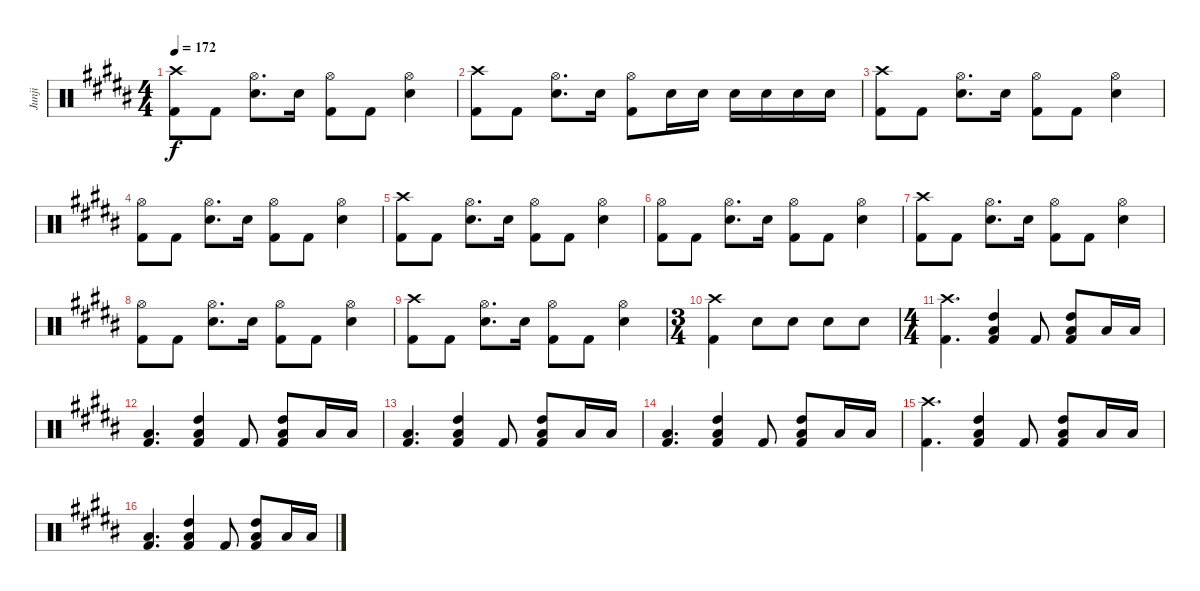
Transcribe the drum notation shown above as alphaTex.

\track ("Junji" "Junji") {instrument percussion}
\staff {score}
\articulation defaults
\ts (4 4)
\tempo 172
\clef neutral
\ks b
("Crash high (hit)" "Kick (hit) 2").8{dy f} "Kick (hit) 2".8 ("Hi-Hat (open)" "Snare (hit) 2").8{d} "Snare (hit) 2".16 ("Hi-Hat (open)" "Kick (hit) 2").8 "Kick (hit) 2".8 ("Hi-Hat (open)" "Snare (hit) 2").4 |
("Crash high (hit)" "Kick (hit) 2").8 "Kick (hit) 2".8 ("Hi-Hat (open)" "Snare (hit) 2").8{d} "Snare (hit) 2".16 ("Hi-Hat (open)" "Kick (hit) 2").8 "Snare (hit) 2".16 "Snare (hit) 2".16 "Snare (hit) 2".16 "Snare (hit) 2".16 "Snare (hit) 2".16 "Snare (hit) 2".16 |
("Crash high (hit)" "Kick (hit) 2").8 "Kick (hit) 2".8 ("Hi-Hat (open)" "Snare (hit) 2").8{d} "Snare (hit) 2".16 ("Hi-Hat (open)" "Kick (hit) 2").8 "Kick (hit) 2".8 ("Hi-Hat (open)" "Snare (hit) 2").4 |
("Hi-Hat (open)" "Kick (hit) 2").8 "Kick (hit) 2".8 ("Hi-Hat (open)" "Snare (hit) 2").8{d} "Snare (hit) 2".16 ("Hi-Hat (open)" "Kick (hit) 2").8 "Kick (hit) 2".8 ("Hi-Hat (open)" "Snare (hit) 2").4 |
("Crash high (hit)" "Kick (hit) 2").8 "Kick (hit) 2".8 ("Hi-Hat (open)" "Snare (hit) 2").8{d} "Snare (hit) 2".16 ("Hi-Hat (open)" "Kick (hit) 2").8 "Kick (hit) 2".8 ("Hi-Hat (open)" "Snare (hit) 2").4 |
("Hi-Hat (open)" "Kick (hit) 2").8 "Kick (hit) 2".8 ("Hi-Hat (open)" "Snare (hit) 2").8{d} "Snare (hit) 2".16 ("Hi-Hat (open)" "Kick (hit) 2").8 "Kick (hit) 2".8 ("Hi-Hat (open)" "Snare (hit) 2").4 |
("Crash high (hit)" "Kick (hit) 2").8 "Kick (hit) 2".8 ("Hi-Hat (open)" "Snare (hit) 2").8{d} "Snare (hit) 2".16 ("Hi-Hat (open)" "Kick (hit) 2").8 "Kick (hit) 2".8 ("Hi-Hat (open)" "Snare (hit) 2").4 |
("Hi-Hat (open)" "Kick (hit) 2").8 "Kick (hit) 2".8 ("Hi-Hat (open)" "Snare (hit) 2").8{d} "Snare (hit) 2".16 ("Hi-Hat (open)" "Kick (hit) 2").8 "Kick (hit) 2".8 ("Hi-Hat (open)" "Snare (hit) 2").4 |
("Crash high (hit)" "Kick (hit) 2").8 "Kick (hit) 2".8 ("Hi-Hat (open)" "Snare (hit) 2").8{d} "Snare (hit) 2".16 ("Hi-Hat (open)" "Kick (hit) 2").8 "Kick (hit) 2".8 ("Hi-Hat (open)" "Snare (hit) 2").4 |
\ts (3 4)
("Crash high (hit)" "Kick (hit) 2").4 "Snare (hit) 2".8 "Snare (hit) 2".8 "Snare (hit) 2".8 "Snare (hit) 2".8 |
\ts (4 4)
("Crash high (hit)" "Kick (hit) 2").4{d} ("Low Floor Tom (hit)" "Kick (hit) 2" "High Tom (hit)").4 "Kick (hit) 2".8 ("Low Floor Tom (hit)" "Kick (hit) 2" "High Tom (hit)").8 "Low Tom (hit)".16 "Low Tom (hit)".16 |
("Kick (hit) 2" "Low Tom (hit)").4{d} ("Low Floor Tom (hit)" "Kick (hit) 2" "High Tom (hit)").4 "Kick (hit) 2".8 ("Low Floor Tom (hit)" "Kick (hit) 2" "High Tom (hit)").8 "Low Tom (hit)".16 "Low Tom (hit)".16 |
("Kick (hit) 2" "Low Tom (hit)").4{d} ("Low Floor Tom (hit)" "Kick (hit) 2" "High Tom (hit)").4 "Kick (hit) 2".8 ("Low Floor Tom (hit)" "Kick (hit) 2" "High Tom (hit)").8 "Low Tom (hit)".16 "Low Tom (hit)".16 |
("Kick (hit) 2" "Low Tom (hit)").4{d} ("Low Floor Tom (hit)" "Kick (hit) 2" "High Tom (hit)").4 "Kick (hit) 2".8 ("Low Floor Tom (hit)" "Kick (hit) 2" "High Tom (hit)").8 "Low Tom (hit)".16 "Low Tom (hit)".16 |
("Crash high (hit)" "Kick (hit) 2").4{d} ("Low Floor Tom (hit)" "Kick (hit) 2" "High Tom (hit)").4 "Kick (hit) 2".8 ("Low Floor Tom (hit)" "Kick (hit) 2" "High Tom (hit)").8 "Low Tom (hit)".16 "Low Tom (hit)".16 |
("Kick (hit) 2" "Low Tom (hit)").4{d} ("Low Floor Tom (hit)" "Kick (hit) 2" "High Tom (hit)").4 "Kick (hit) 2".8 ("Low Floor Tom (hit)" "Kick (hit) 2" "High Tom (hit)").8 "Low Tom (hit)".16 "Low Tom (hit)".16
